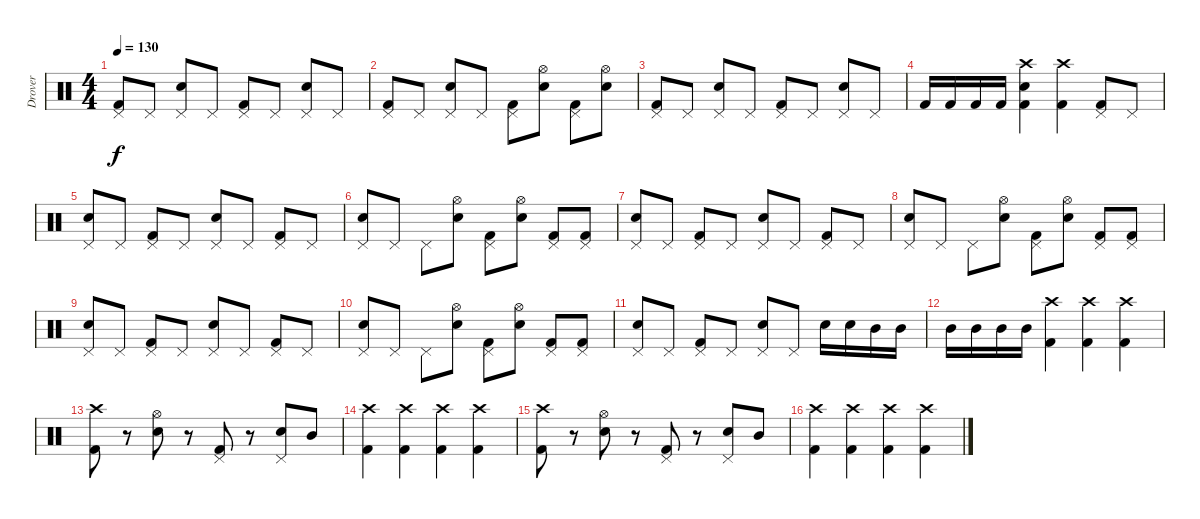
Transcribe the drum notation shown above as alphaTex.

\track ("Drover" "Drover") {instrument percussion}
\staff {score}
\articulation defaults
\ts (4 4)
\tempo 130
\clef neutral
\ks c
("Pedal Hi-Hat (hit)" "Kick (hit) 2").8{dy f} "Pedal Hi-Hat (hit)".8 ("Pedal Hi-Hat (hit)" "Electric Snare (hit)").8 "Pedal Hi-Hat (hit)".8 ("Pedal Hi-Hat (hit)" "Kick (hit) 2").8 "Pedal Hi-Hat (hit)".8 ("Pedal Hi-Hat (hit)" "Electric Snare (hit)").8 "Pedal Hi-Hat (hit)".8 |
("Pedal Hi-Hat (hit)" "Kick (hit) 2").8 "Pedal Hi-Hat (hit)".8 ("Pedal Hi-Hat (hit)" "Electric Snare (hit)").8 "Pedal Hi-Hat (hit)".8 ("Kick (hit) 2" "Pedal Hi-Hat (hit)").8 ("Electric Snare (hit)" "Hi-Hat (open)").8 ("Kick (hit) 2" "Pedal Hi-Hat (hit)").8 ("Electric Snare (hit)" "Hi-Hat (open)").8 |
("Pedal Hi-Hat (hit)" "Kick (hit) 2").8 "Pedal Hi-Hat (hit)".8 ("Pedal Hi-Hat (hit)" "Electric Snare (hit)").8 "Pedal Hi-Hat (hit)".8 ("Pedal Hi-Hat (hit)" "Kick (hit) 2").8 "Pedal Hi-Hat (hit)".8 ("Pedal Hi-Hat (hit)" "Electric Snare (hit)").8 "Pedal Hi-Hat (hit)".8 |
"Kick (hit) 2".16 "Kick (hit) 2".16 "Kick (hit) 2".16 "Kick (hit) 2".16 ("Electric Snare (hit)" "Kick (hit) 2" "Crash high (hit)").4 ("Kick (hit) 2" "Crash high (hit)").4 ("Pedal Hi-Hat (hit)" "Kick (hit) 2").8 "Pedal Hi-Hat (hit)".8 |
("Electric Snare (hit)" "Pedal Hi-Hat (hit)").8 "Pedal Hi-Hat (hit)".8 ("Pedal Hi-Hat (hit)" "Kick (hit) 2").8 "Pedal Hi-Hat (hit)".8 ("Pedal Hi-Hat (hit)" "Electric Snare (hit)").8 "Pedal Hi-Hat (hit)".8 ("Pedal Hi-Hat (hit)" "Kick (hit) 2").8 "Pedal Hi-Hat (hit)".8 |
("Pedal Hi-Hat (hit)" "Electric Snare (hit)").8 "Pedal Hi-Hat (hit)".8 "Pedal Hi-Hat (hit)".8 ("Hi-Hat (open)" "Electric Snare (hit)").8 ("Kick (hit) 2" "Pedal Hi-Hat (hit)").8 ("Hi-Hat (open)" "Electric Snare (hit)").8 ("Kick (hit) 2" "Pedal Hi-Hat (hit)").8 ("Kick (hit) 2" "Pedal Hi-Hat (hit)").8 |
("Electric Snare (hit)" "Pedal Hi-Hat (hit)").8 "Pedal Hi-Hat (hit)".8 ("Pedal Hi-Hat (hit)" "Kick (hit) 2").8 "Pedal Hi-Hat (hit)".8 ("Pedal Hi-Hat (hit)" "Electric Snare (hit)").8 "Pedal Hi-Hat (hit)".8 ("Pedal Hi-Hat (hit)" "Kick (hit) 2").8 "Pedal Hi-Hat (hit)".8 |
("Pedal Hi-Hat (hit)" "Electric Snare (hit)").8 "Pedal Hi-Hat (hit)".8 "Pedal Hi-Hat (hit)".8 ("Hi-Hat (open)" "Electric Snare (hit)").8 ("Kick (hit) 2" "Pedal Hi-Hat (hit)").8 ("Hi-Hat (open)" "Electric Snare (hit)").8 ("Kick (hit) 2" "Pedal Hi-Hat (hit)").8 ("Kick (hit) 2" "Pedal Hi-Hat (hit)").8 |
("Electric Snare (hit)" "Pedal Hi-Hat (hit)").8 "Pedal Hi-Hat (hit)".8 ("Pedal Hi-Hat (hit)" "Kick (hit) 2").8 "Pedal Hi-Hat (hit)".8 ("Pedal Hi-Hat (hit)" "Electric Snare (hit)").8 "Pedal Hi-Hat (hit)".8 ("Pedal Hi-Hat (hit)" "Kick (hit) 2").8 "Pedal Hi-Hat (hit)".8 |
("Pedal Hi-Hat (hit)" "Electric Snare (hit)").8 "Pedal Hi-Hat (hit)".8 "Pedal Hi-Hat (hit)".8 ("Hi-Hat (open)" "Electric Snare (hit)").8 ("Kick (hit) 2" "Pedal Hi-Hat (hit)").8 ("Hi-Hat (open)" "Electric Snare (hit)").8 ("Kick (hit) 2" "Pedal Hi-Hat (hit)").8 ("Kick (hit) 2" "Pedal Hi-Hat (hit)").8 |
("Electric Snare (hit)" "Pedal Hi-Hat (hit)").8 "Pedal Hi-Hat (hit)".8 ("Pedal Hi-Hat (hit)" "Kick (hit) 2").8 "Pedal Hi-Hat (hit)".8 ("Pedal Hi-Hat (hit)" "Electric Snare (hit)").8 "Pedal Hi-Hat (hit)".8 "Electric Snare (hit)".16 "Snare (hit) 2".16 "Mid Tom (hit)".16 "Mid Tom (hit)".16 |
"Mid Tom (hit)".16 "Mid Tom (hit)".16 "Mid Tom (hit)".16 "Mid Tom (hit)".16 ("Kick (hit) 2" "Crash high (hit)").4 ("Kick (hit) 2" "Crash high (hit)").4 ("Kick (hit) 2" "Crash high (hit)").4 |
("Crash high (hit)" "Kick (hit) 2").8 r.8 ("Electric Snare (hit)" "Hi-Hat (open)").8 r.8 ("Kick (hit) 2" "Pedal Hi-Hat (hit)").8 r.8 ("Electric Snare (hit)" "Pedal Hi-Hat (hit)").8 "Mid Tom (hit)".8 |
("Kick (hit) 2" "Crash high (hit)").4 ("Kick (hit) 2" "Crash high (hit)").4 ("Kick (hit) 2" "Crash high (hit)").4 ("Kick (hit) 2" "Crash high (hit)").4 |
("Crash high (hit)" "Kick (hit) 2").8 r.8 ("Electric Snare (hit)" "Hi-Hat (open)").8 r.8 ("Kick (hit) 2" "Pedal Hi-Hat (hit)").8 r.8 ("Electric Snare (hit)" "Pedal Hi-Hat (hit)").8 "Mid Tom (hit)".8 |
("Kick (hit) 2" "Crash high (hit)").4 ("Kick (hit) 2" "Crash high (hit)").4 ("Kick (hit) 2" "Crash high (hit)").4 ("Kick (hit) 2" "Crash high (hit)").4
